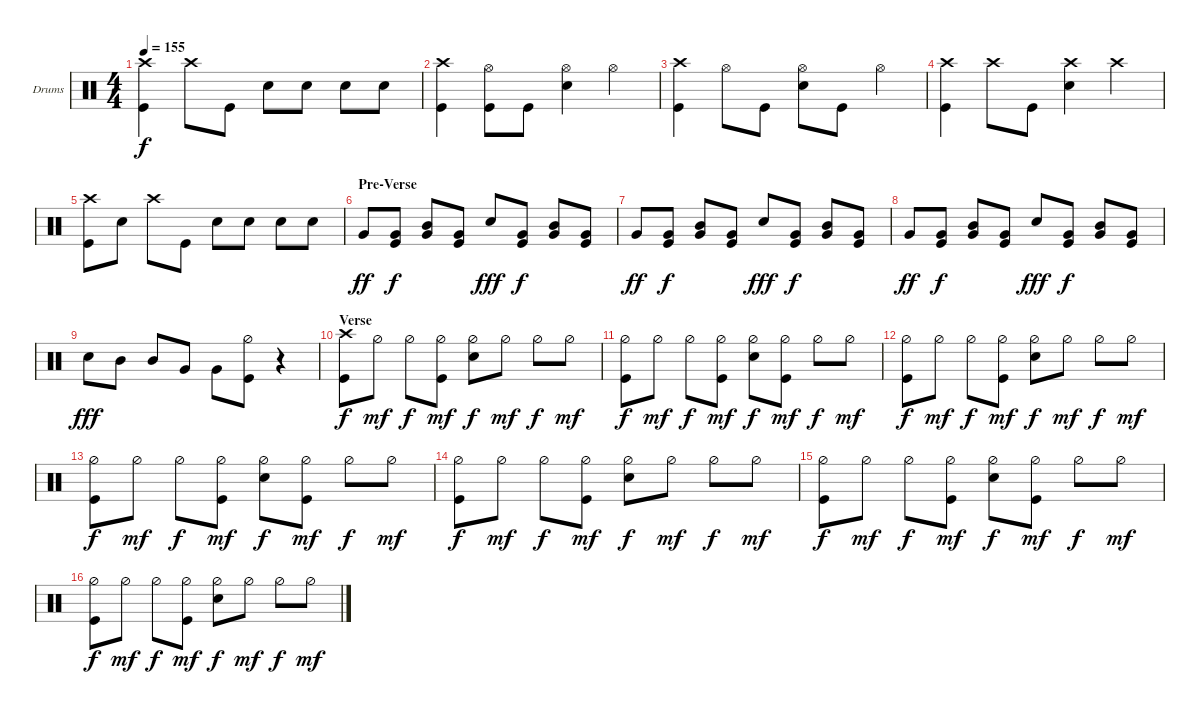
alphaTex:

\defaultSystemsLayout 4
\bracketExtendMode groupsimilarinstruments
\firstSystemTrackNameOrientation horizontal
\otherSystemsTrackNameOrientation horizontal
\track ("Ben Tatcher" "Drums") {instrument percussion}
\staff {score}
\articulation defaults
\ts (4 4)
\tempo 155
\clef neutral
\ks c
("Kick (hit)" "Crash high (hit)").4{dy f} "Crash high (hit)".8 "Kick (hit)".8 "Snare (hit) 2".8 "Snare (hit) 2".8 "Snare (hit) 2".8 "Snare (hit) 2".8 |
("Kick (hit)" "Crash high (hit)").4 ("Kick (hit)" "Hi-Hat (open)").8 "Kick (hit)".8 ("Hi-Hat (open)" "Snare (hit) 2").4 "Hi-Hat (open)".4 |
("Crash high (hit)" "Kick (hit)").4 "Hi-Hat (open)".8 "Kick (hit)".8 ("Snare (hit) 2" "Hi-Hat (open)").8 "Kick (hit)".8 "Hi-Hat (open)".4 |
("Kick (hit)" "Crash high (hit)").4 "Crash high (hit)".8 "Kick (hit)".8 ("Snare (hit) 2" "Crash high (hit)").4 "Crash high (hit)".4 |
("Kick (hit)" "Crash high (hit)").8 "Snare (hit) 2".8 "Crash high (hit)".8 "Kick (hit)".8 "Snare (hit) 2".8 "Snare (hit) 2".8 "Snare (hit) 2".8 "Snare (hit) 2".8 |
\section ("" "Pre-Verse")
"Very Low Tom (hit)".8{dy ff} ("Kick (hit)" "Very Low Tom (hit)").8{dy f} ("Very Low Tom (hit)" "Mid Tom (hit)").8 ("Kick (hit)" "Very Low Tom (hit)").8 "Snare (hit) 2".8{dy fff} ("Very Low Tom (hit)" "Kick (hit)").8{dy f} ("Very Low Tom (hit)" "Mid Tom (hit)").8 ("Kick (hit)" "Very Low Tom (hit)").8 |
"Very Low Tom (hit)".8{dy ff} ("Kick (hit)" "Very Low Tom (hit)").8{dy f} ("Very Low Tom (hit)" "Mid Tom (hit)").8 ("Kick (hit)" "Very Low Tom (hit)").8 "Snare (hit) 2".8{dy fff} ("Very Low Tom (hit)" "Kick (hit)").8{dy f} ("Very Low Tom (hit)" "Mid Tom (hit)").8 ("Kick (hit)" "Very Low Tom (hit)").8 |
"Very Low Tom (hit)".8{dy ff} ("Kick (hit)" "Very Low Tom (hit)").8{dy f} ("Very Low Tom (hit)" "Mid Tom (hit)").8 ("Kick (hit)" "Very Low Tom (hit)").8 "Snare (hit) 2".8{dy fff} ("Very Low Tom (hit)" "Kick (hit)").8{dy f} ("Very Low Tom (hit)" "Mid Tom (hit)").8 ("Kick (hit)" "Very Low Tom (hit)").8 |
"Snare (hit) 2".8{dy fff} "Mid Tom (hit)".8 "Mid Tom (hit)".8 "Very Low Tom (hit)".8 "Very Low Tom (hit)".8 ("Kick (hit)" "Hi-Hat (half)").8 r.4 |
\section ("" "Verse")
("Kick (hit)" "Crash high (hit)").8{dy f} "Hi-Hat (half)".8{dy mf} "Hi-Hat (half)".8{dy f} ("Hi-Hat (half)" "Kick (hit)").8{dy mf} ("Hi-Hat (half)" "Snare (hit) 2").8{dy f} "Hi-Hat (half)".8{dy mf} "Hi-Hat (half)".8{dy f} "Hi-Hat (half)".8{dy mf} |
("Kick (hit)" "Hi-Hat (half)").8{dy f} "Hi-Hat (half)".8{dy mf} "Hi-Hat (half)".8{dy f} ("Hi-Hat (half)" "Kick (hit)").8{dy mf} ("Hi-Hat (half)" "Snare (hit) 2").8{dy f} ("Hi-Hat (half)" "Kick (hit)").8{dy mf} "Hi-Hat (half)".8{dy f} "Hi-Hat (half)".8{dy mf} |
("Kick (hit)" "Hi-Hat (half)").8{dy f} "Hi-Hat (half)".8{dy mf} "Hi-Hat (half)".8{dy f} ("Hi-Hat (half)" "Kick (hit)").8{dy mf} ("Hi-Hat (half)" "Snare (hit) 2").8{dy f} "Hi-Hat (half)".8{dy mf} "Hi-Hat (half)".8{dy f} "Hi-Hat (half)".8{dy mf} |
("Kick (hit)" "Hi-Hat (half)").8{dy f} "Hi-Hat (half)".8{dy mf} "Hi-Hat (half)".8{dy f} ("Hi-Hat (half)" "Kick (hit)").8{dy mf} ("Hi-Hat (half)" "Snare (hit) 2").8{dy f} ("Hi-Hat (half)" "Kick (hit)").8{dy mf} "Hi-Hat (half)".8{dy f} "Hi-Hat (half)".8{dy mf} |
("Kick (hit)" "Hi-Hat (half)").8{dy f} "Hi-Hat (half)".8{dy mf} "Hi-Hat (half)".8{dy f} ("Hi-Hat (half)" "Kick (hit)").8{dy mf} ("Hi-Hat (half)" "Snare (hit) 2").8{dy f} "Hi-Hat (half)".8{dy mf} "Hi-Hat (half)".8{dy f} "Hi-Hat (half)".8{dy mf} |
("Kick (hit)" "Hi-Hat (half)").8{dy f} "Hi-Hat (half)".8{dy mf} "Hi-Hat (half)".8{dy f} ("Hi-Hat (half)" "Kick (hit)").8{dy mf} ("Hi-Hat (half)" "Snare (hit) 2").8{dy f} ("Hi-Hat (half)" "Kick (hit)").8{dy mf} "Hi-Hat (half)".8{dy f} "Hi-Hat (half)".8{dy mf} |
("Kick (hit)" "Hi-Hat (half)").8{dy f} "Hi-Hat (half)".8{dy mf} "Hi-Hat (half)".8{dy f} ("Hi-Hat (half)" "Kick (hit)").8{dy mf} ("Hi-Hat (half)" "Snare (hit) 2").8{dy f} "Hi-Hat (half)".8{dy mf} "Hi-Hat (half)".8{dy f} "Hi-Hat (half)".8{dy mf}
